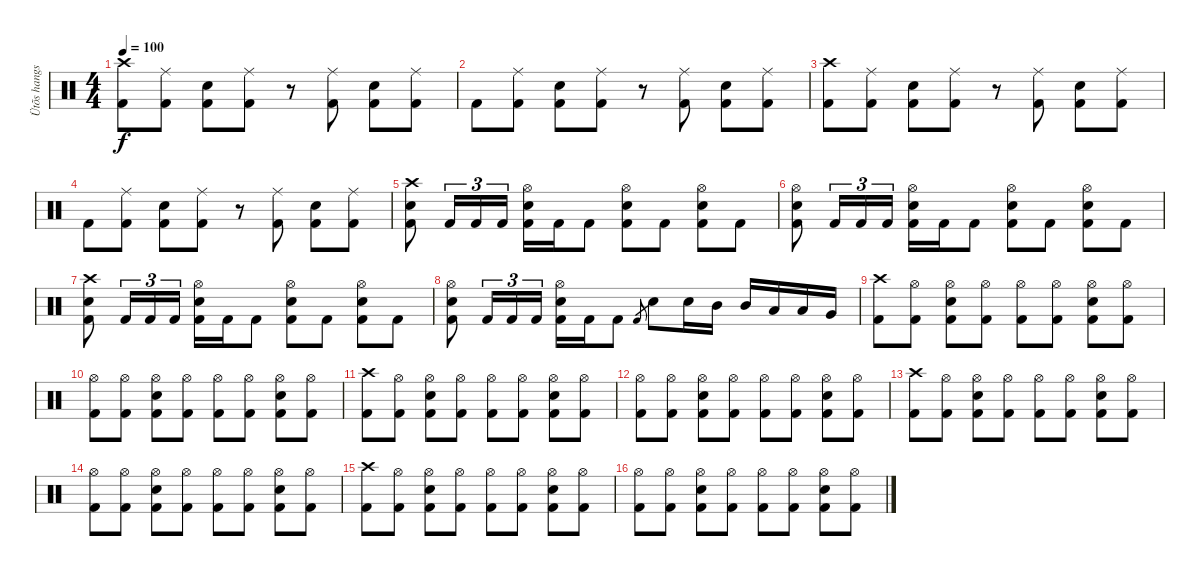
\track ("Ütõs hangszer" "Ütõs hangs") {instrument percussion}
\staff {score}
\articulation defaults
\ts (4 4)
\tempo 100
\clef neutral
\ks c
("Crash high (hit)" "Kick (hit) 2").8{dy f} ("Ride (middle)" "Kick (hit) 2").8 ("Snare (hit) 2" "Kick (hit) 2").8 ("Ride (middle)" "Kick (hit) 2").8 r.8 ("Ride (middle)" "Kick (hit) 2").8 ("Snare (hit) 2" "Kick (hit) 2").8 ("Ride (middle)" "Kick (hit) 2").8 |
"Kick (hit) 2".8 ("Ride (middle)" "Kick (hit) 2").8 ("Snare (hit) 2" "Kick (hit) 2").8 ("Ride (middle)" "Kick (hit) 2").8 r.8 ("Ride (middle)" "Kick (hit) 2").8 ("Snare (hit) 2" "Kick (hit) 2").8 ("Ride (middle)" "Kick (hit) 2").8 |
("Crash high (hit)" "Kick (hit) 2").8 ("Ride (middle)" "Kick (hit) 2").8 ("Snare (hit) 2" "Kick (hit) 2").8 ("Ride (middle)" "Kick (hit) 2").8 r.8 ("Ride (middle)" "Kick (hit) 2").8 ("Snare (hit) 2" "Kick (hit) 2").8 ("Ride (middle)" "Kick (hit) 2").8 |
"Kick (hit) 2".8 ("Ride (middle)" "Kick (hit) 2").8 ("Snare (hit) 2" "Kick (hit) 2").8 ("Ride (middle)" "Kick (hit) 2").8 r.8 ("Ride (middle)" "Kick (hit) 2").8 ("Snare (hit) 2" "Kick (hit) 2").8 ("Ride (middle)" "Kick (hit) 2").8 |
("Crash high (hit)" "Snare (hit) 2" "Kick (hit) 2").8 "Kick (hit) 2".16{tu (3 2)} "Kick (hit) 2".16{tu (3 2)} "Kick (hit) 2".16{tu (3 2)} ("Hi-Hat (open)" "Snare (hit) 2" "Kick (hit) 2").16 "Kick (hit) 2".16 "Kick (hit) 2".8 ("Hi-Hat (open)" "Snare (hit) 2" "Kick (hit) 2").8 "Kick (hit) 2".8 ("Hi-Hat (open)" "Snare (hit) 2" "Kick (hit) 2").8 "Kick (hit) 2".8 |
("Hi-Hat (open)" "Snare (hit) 2" "Kick (hit) 2").8 "Kick (hit) 2".16{tu (3 2)} "Kick (hit) 2".16{tu (3 2)} "Kick (hit) 2".16{tu (3 2)} ("Hi-Hat (open)" "Snare (hit) 2" "Kick (hit) 2").16 "Kick (hit) 2".16 "Kick (hit) 2".8 ("Hi-Hat (open)" "Snare (hit) 2" "Kick (hit) 2").8 "Kick (hit) 2".8 ("Hi-Hat (open)" "Snare (hit) 2" "Kick (hit) 2").8 "Kick (hit) 2".8 |
("Crash high (hit)" "Snare (hit) 2" "Kick (hit) 2").8 "Kick (hit) 2".16{tu (3 2)} "Kick (hit) 2".16{tu (3 2)} "Kick (hit) 2".16{tu (3 2)} ("Hi-Hat (open)" "Snare (hit) 2" "Kick (hit) 2").16 "Kick (hit) 2".16 "Kick (hit) 2".8 ("Hi-Hat (open)" "Snare (hit) 2" "Kick (hit) 2").8 "Kick (hit) 2".8 ("Hi-Hat (open)" "Snare (hit) 2" "Kick (hit) 2").8 "Kick (hit) 2".8 |
("Hi-Hat (open)" "Snare (hit) 2" "Kick (hit) 2").8 "Kick (hit) 2".16{tu (3 2)} "Kick (hit) 2".16{tu (3 2)} "Kick (hit) 2".16{tu (3 2)} ("Hi-Hat (open)" "Snare (hit) 2" "Kick (hit) 2").16 "Kick (hit) 2".16 "Kick (hit) 2".8 "Kick (hit) 2"{h}.8{gr} "Snare (hit) 2".8 "Snare (hit) 2".16 "Mid Tom (hit)".16 "Mid Tom (hit)".16 "Low Tom (hit)".16 "Low Tom (hit)".16 "Very Low Tom (hit)".16 |
("Crash high (hit)" "Kick (hit) 2").8 ("Hi-Hat (open)" "Kick (hit) 2").8 ("Hi-Hat (open)" "Snare (hit) 2" "Kick (hit) 2").8 ("Hi-Hat (open)" "Kick (hit) 2").8 ("Hi-Hat (open)" "Kick (hit) 2").8 ("Hi-Hat (open)" "Kick (hit) 2").8 ("Hi-Hat (open)" "Snare (hit) 2" "Kick (hit) 2").8 ("Hi-Hat (open)" "Kick (hit) 2").8 |
("Hi-Hat (open)" "Kick (hit) 2").8 ("Hi-Hat (open)" "Kick (hit) 2").8 ("Hi-Hat (open)" "Snare (hit) 2" "Kick (hit) 2").8 ("Hi-Hat (open)" "Kick (hit) 2").8 ("Hi-Hat (open)" "Kick (hit) 2").8 ("Hi-Hat (open)" "Kick (hit) 2").8 ("Hi-Hat (open)" "Snare (hit) 2" "Kick (hit) 2").8 ("Hi-Hat (open)" "Kick (hit) 2").8 |
("Crash high (hit)" "Kick (hit) 2").8 ("Hi-Hat (open)" "Kick (hit) 2").8 ("Hi-Hat (open)" "Snare (hit) 2" "Kick (hit) 2").8 ("Hi-Hat (open)" "Kick (hit) 2").8 ("Hi-Hat (open)" "Kick (hit) 2").8 ("Hi-Hat (open)" "Kick (hit) 2").8 ("Hi-Hat (open)" "Snare (hit) 2" "Kick (hit) 2").8 ("Hi-Hat (open)" "Kick (hit) 2").8 |
("Hi-Hat (open)" "Kick (hit) 2").8 ("Hi-Hat (open)" "Kick (hit) 2").8 ("Hi-Hat (open)" "Snare (hit) 2" "Kick (hit) 2").8 ("Hi-Hat (open)" "Kick (hit) 2").8 ("Hi-Hat (open)" "Kick (hit) 2").8 ("Hi-Hat (open)" "Kick (hit) 2").8 ("Hi-Hat (open)" "Snare (hit) 2" "Kick (hit) 2").8 ("Hi-Hat (open)" "Kick (hit) 2").8 |
("Crash high (hit)" "Kick (hit) 2").8 ("Hi-Hat (open)" "Kick (hit) 2").8 ("Hi-Hat (open)" "Snare (hit) 2" "Kick (hit) 2").8 ("Hi-Hat (open)" "Kick (hit) 2").8 ("Hi-Hat (open)" "Kick (hit) 2").8 ("Hi-Hat (open)" "Kick (hit) 2").8 ("Hi-Hat (open)" "Snare (hit) 2" "Kick (hit) 2").8 ("Hi-Hat (open)" "Kick (hit) 2").8 |
("Hi-Hat (open)" "Kick (hit) 2").8 ("Hi-Hat (open)" "Kick (hit) 2").8 ("Hi-Hat (open)" "Snare (hit) 2" "Kick (hit) 2").8 ("Hi-Hat (open)" "Kick (hit) 2").8 ("Hi-Hat (open)" "Kick (hit) 2").8 ("Hi-Hat (open)" "Kick (hit) 2").8 ("Hi-Hat (open)" "Snare (hit) 2" "Kick (hit) 2").8 ("Hi-Hat (open)" "Kick (hit) 2").8 |
("Crash high (hit)" "Kick (hit) 2").8 ("Hi-Hat (open)" "Kick (hit) 2").8 ("Hi-Hat (open)" "Snare (hit) 2" "Kick (hit) 2").8 ("Hi-Hat (open)" "Kick (hit) 2").8 ("Hi-Hat (open)" "Kick (hit) 2").8 ("Hi-Hat (open)" "Kick (hit) 2").8 ("Hi-Hat (open)" "Snare (hit) 2" "Kick (hit) 2").8 ("Hi-Hat (open)" "Kick (hit) 2").8 |
("Hi-Hat (open)" "Kick (hit) 2").8 ("Hi-Hat (open)" "Kick (hit) 2").8 ("Hi-Hat (open)" "Snare (hit) 2" "Kick (hit) 2").8 ("Hi-Hat (open)" "Kick (hit) 2").8 ("Hi-Hat (open)" "Kick (hit) 2").8 ("Hi-Hat (open)" "Kick (hit) 2").8 ("Hi-Hat (open)" "Snare (hit) 2" "Kick (hit) 2").8 ("Hi-Hat (open)" "Kick (hit) 2").8
